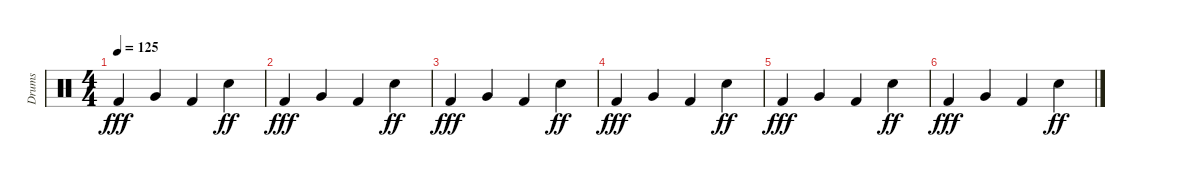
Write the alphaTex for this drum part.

\track ("Drums" "Drums") {instrument percussion}
\staff {score}
\articulation defaults
\ts (4 4)
\tempo 125
\clef neutral
\ks c "Kick (hit) 2".4{dy fff} "Very Low Tom (hit)".4 "Kick (hit) 2".4 "Snare (hit) 2".4{dy ff}
|
"Kick (hit) 2".4{dy fff} "Very Low Tom (hit)".4 "Kick (hit) 2".4 "Snare (hit) 2".4{dy ff} |
"Kick (hit) 2".4{dy fff volume 0} "Very Low Tom (hit)".4 "Kick (hit) 2".4 "Snare (hit) 2".4{dy ff} |
"Kick (hit) 2".4{dy fff} "Very Low Tom (hit)".4 "Kick (hit) 2".4 "Snare (hit) 2".4{dy ff} |
"Kick (hit) 2".4{dy fff} "Very Low Tom (hit)".4 "Kick (hit) 2".4 "Snare (hit) 2".4{dy ff} |
"Kick (hit) 2".4{dy fff} "Very Low Tom (hit)".4 "Kick (hit) 2".4 "Snare (hit) 2".4{dy ff}
